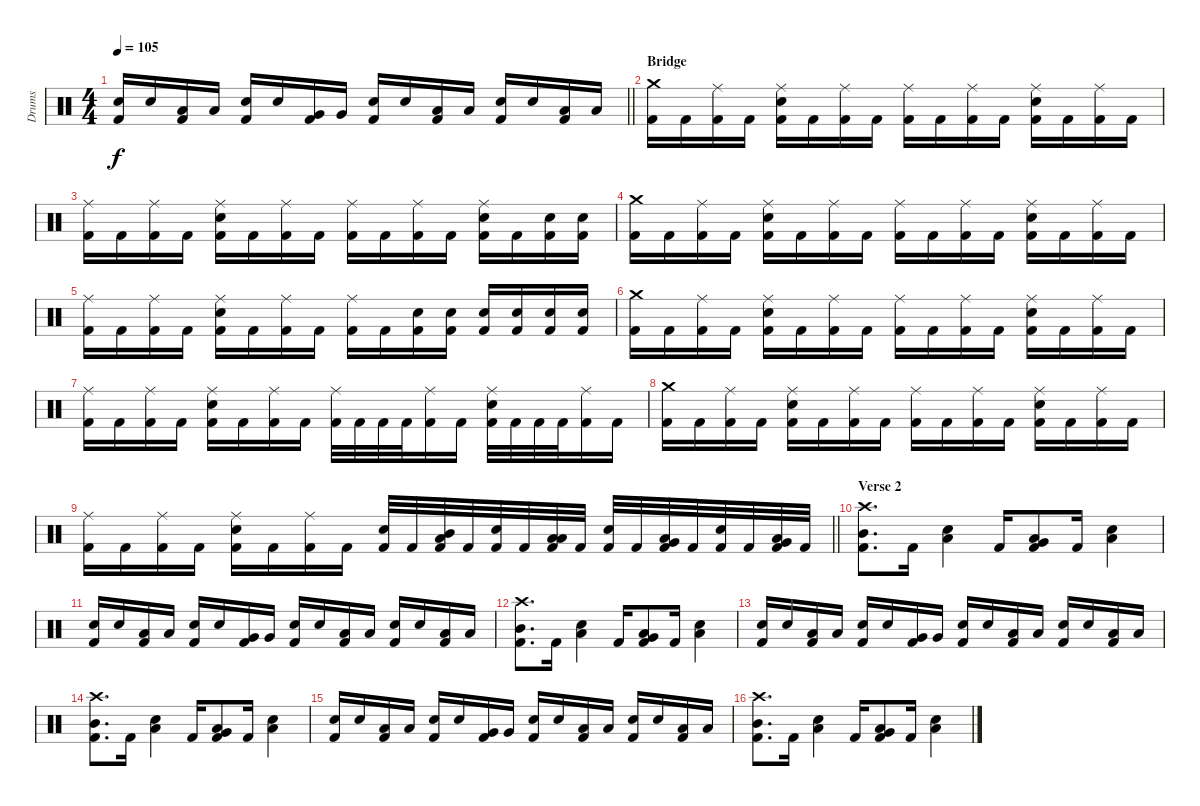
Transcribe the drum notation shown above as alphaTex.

\track ("Drums" "Drums") {instrument percussion}
\staff {score}
\articulation defaults
\ts (4 4)
\tempo 105
\clef neutral
\barLineRight lightlight
\ks c
("Kick (hit) 2" "Snare (hit) 2").16{dy f} "Snare (hit) 2".16 ("Kick (hit) 2" "Low Tom (hit)").16 "Low Tom (hit)".16 ("Kick (hit) 2" "Snare (hit) 2").16 "Snare (hit) 2".16 ("Kick (hit) 2" "Very Low Tom (hit)").16 "Very Low Tom (hit)".16 ("Kick (hit) 2" "Snare (hit) 2").16 "Snare (hit) 2".16 ("Kick (hit) 2" "Low Tom (hit)").16 "Low Tom (hit)".16 ("Kick (hit) 2" "Snare (hit) 2").16 "Snare (hit) 2".16 ("Kick (hit) 2" "Low Floor Tom (hit)").16 "Low Floor Tom (hit)".16 |
\section ("" "Bridge")
("Kick (hit) 2" "Crash medium (hit)").16 "Kick (hit) 2".16 ("Kick (hit) 2" "Ride (middle)").16 "Kick (hit) 2".16 ("Kick (hit) 2" "Snare (hit) 2" "Ride (middle)").16 "Kick (hit) 2".16 ("Kick (hit) 2" "Ride (middle)").16 "Kick (hit) 2".16 ("Kick (hit) 2" "Ride (middle)").16 "Kick (hit) 2".16 ("Kick (hit) 2" "Ride (middle)").16 "Kick (hit) 2".16 ("Kick (hit) 2" "Snare (hit) 2" "Ride (middle)").16 "Kick (hit) 2".16 ("Kick (hit) 2" "Ride (middle)").16 "Kick (hit) 2".16 |
("Kick (hit) 2" "Ride (middle)").16 "Kick (hit) 2".16 ("Kick (hit) 2" "Ride (middle)").16 "Kick (hit) 2".16 ("Kick (hit) 2" "Snare (hit) 2" "Ride (middle)").16 "Kick (hit) 2".16 ("Kick (hit) 2" "Ride (middle)").16 "Kick (hit) 2".16 ("Kick (hit) 2" "Ride (middle)").16 "Kick (hit) 2".16 ("Kick (hit) 2" "Ride (middle)").16 "Kick (hit) 2".16 ("Kick (hit) 2" "Snare (hit) 2" "Ride (middle)").16 "Kick (hit) 2".16 ("Kick (hit) 2" "Snare (hit) 2").16 ("Kick (hit) 2" "Snare (hit) 2").16 |
("Kick (hit) 2" "Crash medium (hit)").16 "Kick (hit) 2".16 ("Kick (hit) 2" "Ride (middle)").16 "Kick (hit) 2".16 ("Kick (hit) 2" "Snare (hit) 2" "Ride (middle)").16 "Kick (hit) 2".16 ("Kick (hit) 2" "Ride (middle)").16 "Kick (hit) 2".16 ("Kick (hit) 2" "Ride (middle)").16 "Kick (hit) 2".16 ("Kick (hit) 2" "Ride (middle)").16 "Kick (hit) 2".16 ("Kick (hit) 2" "Snare (hit) 2" "Ride (middle)").16 "Kick (hit) 2".16 ("Kick (hit) 2" "Ride (middle)").16 "Kick (hit) 2".16 |
("Kick (hit) 2" "Ride (middle)").16 "Kick (hit) 2".16 ("Kick (hit) 2" "Ride (middle)").16 "Kick (hit) 2".16 ("Kick (hit) 2" "Snare (hit) 2" "Ride (middle)").16 "Kick (hit) 2".16 ("Kick (hit) 2" "Ride (middle)").16 "Kick (hit) 2".16 ("Kick (hit) 2" "Ride (middle)").16 "Kick (hit) 2".16 ("Kick (hit) 2" "Snare (hit) 2").16 ("Kick (hit) 2" "Snare (hit) 2").16 ("Kick (hit) 2" "Snare (hit) 2").16 ("Kick (hit) 2" "Snare (hit) 2").16 ("Kick (hit) 2" "Snare (hit) 2").16 ("Kick (hit) 2" "Snare (hit) 2").16 |
("Kick (hit) 2" "Crash medium (hit)").16 "Kick (hit) 2".16 ("Kick (hit) 2" "Ride (middle)").16 "Kick (hit) 2".16 ("Kick (hit) 2" "Snare (hit) 2" "Ride (middle)").16 "Kick (hit) 2".16 ("Kick (hit) 2" "Ride (middle)").16 "Kick (hit) 2".16 ("Kick (hit) 2" "Ride (middle)").16 "Kick (hit) 2".16 ("Kick (hit) 2" "Ride (middle)").16 "Kick (hit) 2".16 ("Kick (hit) 2" "Snare (hit) 2" "Ride (middle)").16 "Kick (hit) 2".16 ("Kick (hit) 2" "Ride (middle)").16 "Kick (hit) 2".16 |
("Kick (hit) 2" "Ride (middle)").16 "Kick (hit) 2".16 ("Kick (hit) 2" "Ride (middle)").16 "Kick (hit) 2".16 ("Kick (hit) 2" "Snare (hit) 2" "Ride (middle)").16 "Kick (hit) 2".16 ("Kick (hit) 2" "Ride (middle)").16 "Kick (hit) 2".16 ("Kick (hit) 2" "Ride (middle)").32 "Kick (hit) 2".32 "Kick (hit) 2".32 "Kick (hit) 2".32 ("Kick (hit) 2" "Ride (middle)").16 "Kick (hit) 2".16 ("Kick (hit) 2" "Snare (hit) 2" "Ride (middle)").32 "Kick (hit) 2".32 "Kick (hit) 2".32 "Kick (hit) 2".32 ("Kick (hit) 2" "Ride (middle)").16 "Kick (hit) 2".16 |
("Kick (hit) 2" "Crash medium (hit)").16 "Kick (hit) 2".16 ("Kick (hit) 2" "Ride (middle)").16 "Kick (hit) 2".16 ("Kick (hit) 2" "Snare (hit) 2" "Ride (middle)").16 "Kick (hit) 2".16 ("Kick (hit) 2" "Ride (middle)").16 "Kick (hit) 2".16 ("Kick (hit) 2" "Ride (middle)").16 "Kick (hit) 2".16 ("Kick (hit) 2" "Ride (middle)").16 "Kick (hit) 2".16 ("Kick (hit) 2" "Snare (hit) 2" "Ride (middle)").16 "Kick (hit) 2".16 ("Kick (hit) 2" "Ride (middle)").16 "Kick (hit) 2".16 |
\barLineRight lightlight
("Kick (hit) 2" "Ride (middle)").16 "Kick (hit) 2".16 ("Kick (hit) 2" "Ride (middle)").16 "Kick (hit) 2".16 ("Kick (hit) 2" "Snare (hit) 2" "Ride (middle)").16 "Kick (hit) 2".16 ("Kick (hit) 2" "Ride (middle)").16 "Kick (hit) 2".16 ("Kick (hit) 2" "Snare (hit) 2").32 "Kick (hit) 2".32 ("Kick (hit) 2" "Mid Tom (hit)" "Low Tom (hit)").32 "Kick (hit) 2".32 ("Kick (hit) 2" "Snare (hit) 2").32 "Kick (hit) 2".32 ("Kick (hit) 2" "Low Tom (hit)" "Low Tom (hit)").32 "Kick (hit) 2".32 ("Kick (hit) 2" "Snare (hit) 2").32 "Kick (hit) 2".32 ("Kick (hit) 2" "Low Tom (hit)" "Very Low Tom (hit)").32 "Kick (hit) 2".32 ("Kick (hit) 2" "Snare (hit) 2").32 "Kick (hit) 2".32 ("Kick (hit) 2" "Very Low Tom (hit)" "Low Floor Tom (hit)").32 "Kick (hit) 2".32 |
\section ("" "Verse 2")
("Kick (hit) 2" "Mid Tom (hit)" "Crash high (hit)").8{d} "Kick (hit) 2".16 ("Snare (hit) 2" "Low Tom (hit)").4 "Kick (hit) 2".16 ("Kick (hit) 2" "Very Low Tom (hit)" "Low Floor Tom (hit)").8 "Kick (hit) 2".16 ("Snare (hit) 2" "Low Tom (hit)").4 |
("Kick (hit) 2" "Snare (hit) 2").16 "Snare (hit) 2".16 ("Kick (hit) 2" "Low Tom (hit)").16 "Low Tom (hit)".16 ("Kick (hit) 2" "Snare (hit) 2").16 "Snare (hit) 2".16 ("Kick (hit) 2" "Very Low Tom (hit)").16 "Very Low Tom (hit)".16 ("Kick (hit) 2" "Snare (hit) 2").16 "Snare (hit) 2".16 ("Kick (hit) 2" "Low Tom (hit)").16 "Low Tom (hit)".16 ("Kick (hit) 2" "Snare (hit) 2").16 "Snare (hit) 2".16 ("Kick (hit) 2" "Low Floor Tom (hit)").16 "Low Floor Tom (hit)".16 |
("Kick (hit) 2" "Mid Tom (hit)" "Crash high (hit)").8{d} "Kick (hit) 2".16 ("Snare (hit) 2" "Low Tom (hit)").4 "Kick (hit) 2".16 ("Kick (hit) 2" "Very Low Tom (hit)" "Low Floor Tom (hit)").8 "Kick (hit) 2".16 ("Snare (hit) 2" "Low Tom (hit)").4 |
("Kick (hit) 2" "Snare (hit) 2").16 "Snare (hit) 2".16 ("Kick (hit) 2" "Low Tom (hit)").16 "Low Tom (hit)".16 ("Kick (hit) 2" "Snare (hit) 2").16 "Snare (hit) 2".16 ("Kick (hit) 2" "Very Low Tom (hit)").16 "Very Low Tom (hit)".16 ("Kick (hit) 2" "Snare (hit) 2").16 "Snare (hit) 2".16 ("Kick (hit) 2" "Low Tom (hit)").16 "Low Tom (hit)".16 ("Kick (hit) 2" "Snare (hit) 2").16 "Snare (hit) 2".16 ("Kick (hit) 2" "Low Floor Tom (hit)").16 "Low Floor Tom (hit)".16 |
("Kick (hit) 2" "Mid Tom (hit)" "Crash high (hit)").8{d} "Kick (hit) 2".16 ("Snare (hit) 2" "Low Tom (hit)").4 "Kick (hit) 2".16 ("Kick (hit) 2" "Very Low Tom (hit)" "Low Floor Tom (hit)").8 "Kick (hit) 2".16 ("Snare (hit) 2" "Low Tom (hit)").4 |
("Kick (hit) 2" "Snare (hit) 2").16 "Snare (hit) 2".16 ("Kick (hit) 2" "Low Tom (hit)").16 "Low Tom (hit)".16 ("Kick (hit) 2" "Snare (hit) 2").16 "Snare (hit) 2".16 ("Kick (hit) 2" "Very Low Tom (hit)").16 "Very Low Tom (hit)".16 ("Kick (hit) 2" "Snare (hit) 2").16 "Snare (hit) 2".16 ("Kick (hit) 2" "Low Tom (hit)").16 "Low Tom (hit)".16 ("Kick (hit) 2" "Snare (hit) 2").16 "Snare (hit) 2".16 ("Kick (hit) 2" "Low Floor Tom (hit)").16 "Low Floor Tom (hit)".16 |
("Kick (hit) 2" "Mid Tom (hit)" "Crash high (hit)").8{d} "Kick (hit) 2".16 ("Snare (hit) 2" "Low Tom (hit)").4 "Kick (hit) 2".16 ("Kick (hit) 2" "Very Low Tom (hit)" "Low Floor Tom (hit)").8 "Kick (hit) 2".16 ("Snare (hit) 2" "Low Tom (hit)").4
